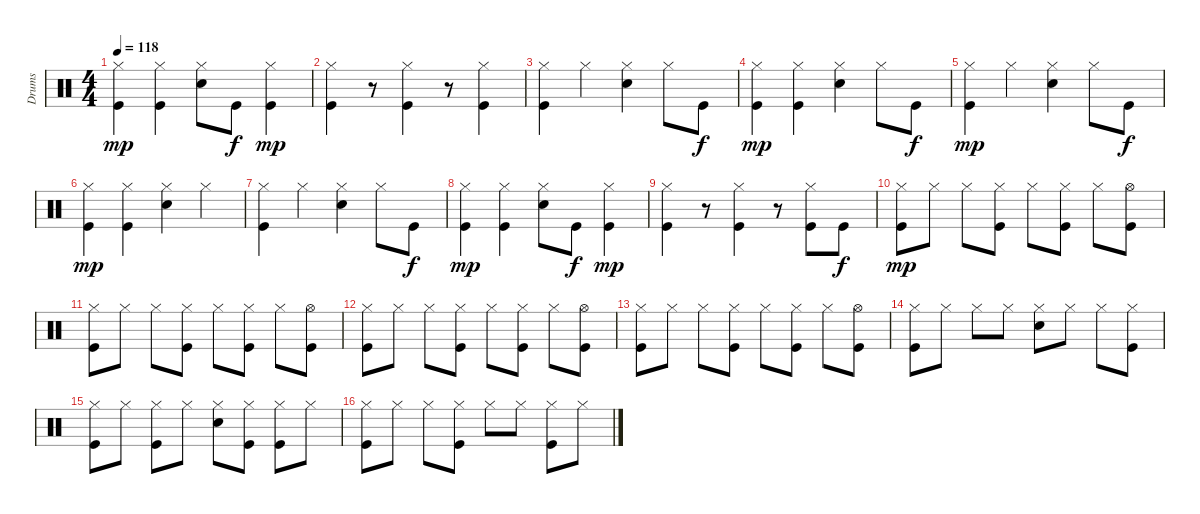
\track ("Drums" "Drums") {instrument percussion}
\staff {score}
\articulation defaults
\ts (4 4)
\tempo 118
\clef neutral
\ks c
("Kick (hit)" "Hi-Hat (closed)").4{dy mp} ("Kick (hit)" "Hi-Hat (closed)").4 ("Snare (hit) 2" "Hi-Hat (closed)").8 "Kick (hit)".8{dy f} ("Kick (hit)" "Hi-Hat (closed)").4{dy mp} |
("Kick (hit)" "Hi-Hat (closed)").4 r.8 ("Kick (hit)" "Hi-Hat (closed)").4 r.8 ("Kick (hit)" "Hi-Hat (closed)").4 |
("Kick (hit)" "Hi-Hat (closed)").4 "Hi-Hat (closed)".4 ("Snare (hit) 2" "Hi-Hat (closed)").4 "Hi-Hat (closed)".8 "Kick (hit)".8{dy f} |
("Kick (hit)" "Hi-Hat (closed)").4{dy mp} ("Kick (hit)" "Hi-Hat (closed)").4 ("Snare (hit) 2" "Hi-Hat (closed)").4 "Hi-Hat (closed)".8 "Kick (hit)".8{dy f} |
("Kick (hit)" "Hi-Hat (closed)").4{dy mp} "Hi-Hat (closed)".4 ("Snare (hit) 2" "Hi-Hat (closed)").4 "Hi-Hat (closed)".8 "Kick (hit)".8{dy f} |
("Kick (hit)" "Hi-Hat (closed)").4{dy mp} ("Kick (hit)" "Hi-Hat (closed)").4 ("Snare (hit) 2" "Hi-Hat (closed)").4 "Hi-Hat (closed)".4 |
("Kick (hit)" "Hi-Hat (closed)").4 "Hi-Hat (closed)".4 ("Snare (hit) 2" "Hi-Hat (closed)").4 "Hi-Hat (closed)".8 "Kick (hit)".8{dy f} |
("Kick (hit)" "Hi-Hat (closed)").4{dy mp} ("Kick (hit)" "Hi-Hat (closed)").4 ("Snare (hit) 2" "Hi-Hat (closed)").8 "Kick (hit)".8{dy f} ("Kick (hit)" "Hi-Hat (closed)").4{dy mp} |
("Kick (hit)" "Hi-Hat (closed)").4 r.8 ("Kick (hit)" "Hi-Hat (closed)").4 r.8 ("Kick (hit)" "Hi-Hat (closed)").8 "Kick (hit)".8{dy f} |
("Kick (hit)" "Hi-Hat (closed)").8{dy mp} "Hi-Hat (closed)".8 "Hi-Hat (closed)".8 ("Kick (hit)" "Hi-Hat (closed)").8 "Hi-Hat (closed)".8 ("Kick (hit)" "Hi-Hat (closed)").8 "Hi-Hat (closed)".8 ("Kick (hit)" "Hi-Hat (open)").8 |
("Kick (hit)" "Hi-Hat (closed)").8 "Hi-Hat (closed)".8 "Hi-Hat (closed)".8 ("Kick (hit)" "Hi-Hat (closed)").8 "Hi-Hat (closed)".8 ("Kick (hit)" "Hi-Hat (closed)").8 "Hi-Hat (closed)".8 ("Kick (hit)" "Hi-Hat (open)").8 |
("Kick (hit)" "Hi-Hat (closed)").8 "Hi-Hat (closed)".8 "Hi-Hat (closed)".8 ("Kick (hit)" "Hi-Hat (closed)").8 "Hi-Hat (closed)".8 ("Kick (hit)" "Hi-Hat (closed)").8 "Hi-Hat (closed)".8 ("Kick (hit)" "Hi-Hat (open)").8 |
("Kick (hit)" "Hi-Hat (closed)").8 "Hi-Hat (closed)".8 "Hi-Hat (closed)".8 ("Kick (hit)" "Hi-Hat (closed)").8 "Hi-Hat (closed)".8 ("Kick (hit)" "Hi-Hat (closed)").8 "Hi-Hat (closed)".8 ("Kick (hit)" "Hi-Hat (open)").8 |
("Kick (hit)" "Hi-Hat (closed)").8 "Hi-Hat (closed)".8 "Hi-Hat (closed)".8 "Hi-Hat (closed)".8 ("Snare (hit) 2" "Hi-Hat (closed)").8 "Hi-Hat (closed)".8 "Hi-Hat (closed)".8 ("Kick (hit)" "Hi-Hat (closed)").8 |
("Kick (hit)" "Hi-Hat (closed)").8 "Hi-Hat (closed)".8 ("Kick (hit)" "Hi-Hat (closed)").8 "Hi-Hat (closed)".8 ("Snare (hit) 2" "Hi-Hat (closed)").8 ("Kick (hit)" "Hi-Hat (closed)").8 ("Kick (hit)" "Hi-Hat (closed)").8 "Hi-Hat (closed)".8 |
("Kick (hit)" "Hi-Hat (closed)").8 "Hi-Hat (closed)".8 "Hi-Hat (closed)".8 ("Kick (hit)" "Hi-Hat (closed)").8 "Hi-Hat (closed)".8 "Hi-Hat (closed)".8 ("Kick (hit)" "Hi-Hat (closed)").8 "Hi-Hat (closed)".8
